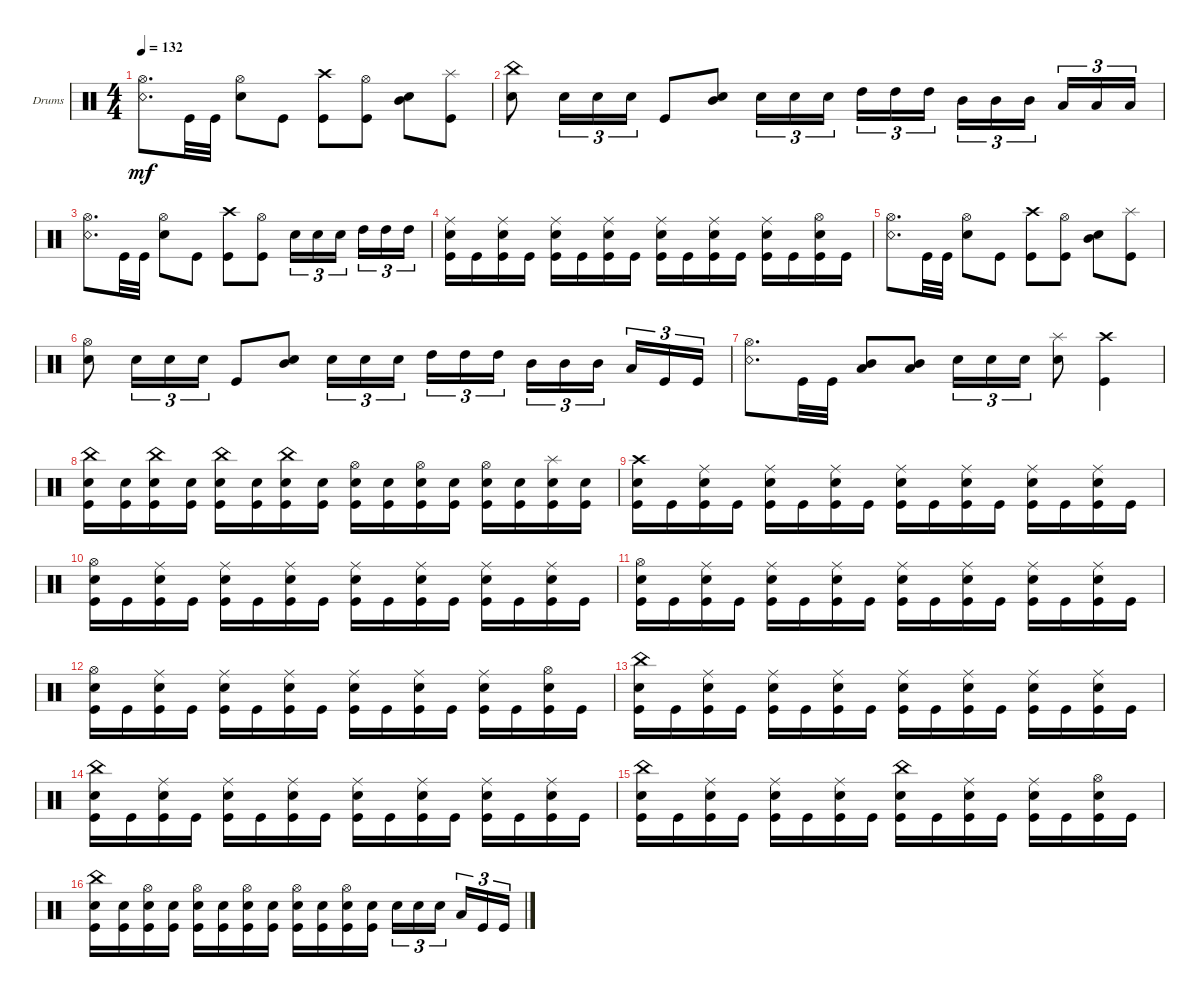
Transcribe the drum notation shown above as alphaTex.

\defaultSystemsLayout 4
\bracketExtendMode groupsimilarinstruments
\firstSystemTrackNameOrientation horizontal
\otherSystemsTrackNameOrientation horizontal
\track ("Drumkit" "Drums") {instrument percussion}
\staff {score}
\articulation defaults
\ts (4 4)
\tempo 132
\clef neutral
\scale
0.333333
\ks c
("Snare (rim shot)" "Hi-Hat (open)").8{d dy mf} "Kick (hit)".32 "Kick (hit)".32 ("Snare (hit) 2" "Hi-Hat (open)").8 "Kick (hit)".8 ("Kick (hit)" "Crash high (hit)").8 ("Kick (hit)" "Hi-Hat (open)").8 ("Snare (hit) 2" "Mid Tom (hit)").8 ("Kick (hit)" "Splash (hit)").8 |
\scale
0.333333 ("Snare (hit) 2" "China (hit)").8 "Snare (hit) 2".16{tu (3 2)} "Snare (hit) 2".16{tu (3 2)} "Snare (hit) 2".16{tu (3 2)} "Kick (hit)".8 ("Snare (hit) 2" "Mid Tom (hit)").8 "Snare (hit) 2".16{tu (3 2)} "Snare (hit) 2".16{tu (3 2)} "Snare (hit) 2".16{tu (3 2)} "High Tom (hit)".16{tu (3 2)} "High Tom (hit)".16{tu (3 2)} "High Tom (hit)".16{tu (3 2)} "Mid Tom (hit)".16{tu (3 2)} "Mid Tom (hit)".16{tu (3 2)} "Mid Tom (hit)".16{tu (3 2)} "Low Tom (hit)".16{tu (3 2)} "Low Tom (hit)".16{tu (3 2)} "Low Tom (hit)".16{tu (3 2)} |
\scale
0.333333 ("Snare (rim shot)" "Hi-Hat (open)").8{d} "Kick (hit)".32 "Kick (hit)".32 ("Snare (hit) 2" "Hi-Hat (open)").8 "Kick (hit)".8 ("Kick (hit)" "Crash high (hit)").8 ("Kick (hit)" "Hi-Hat (open)").8 "Snare (hit) 2".16{tu (3 2)} "Snare (hit) 2".16{tu (3 2)} "Snare (hit) 2".16{tu (3 2)} "High Tom (hit)".16{tu (3 2)} "High Tom (hit)".16{tu (3 2)} "High Tom (hit)".16{tu (3 2)} |
\scale
0.333333 ("Kick (hit)" "Ride (middle)" "Snare (hit) 2").16 "Kick (hit)".16 ("Kick (hit)" "Ride (middle)" "Snare (hit) 2").16 "Kick (hit)".16 ("Kick (hit)" "Snare (hit) 2" "Ride (middle)").16 "Kick (hit)".16 ("Kick (hit)" "Ride (middle)" "Snare (hit) 2").16 "Kick (hit)".16 ("Kick (hit)" "Ride (middle)" "Snare (hit) 2").16 "Kick (hit)".16 ("Kick (hit)" "Ride (middle)" "Snare (hit) 2").16 "Kick (hit)".16 ("Kick (hit)" "Snare (hit) 2" "Ride (middle)").16 "Kick (hit)".16 ("Kick (hit)" "Snare (hit) 2" "Hi-Hat (open)").16 "Kick (hit)".16 |
\scale
0.333333 ("Snare (rim shot)" "Hi-Hat (open)").8{d} "Kick (hit)".32 "Kick (hit)".32 ("Snare (hit) 2" "Hi-Hat (open)").8 "Kick (hit)".8 ("Kick (hit)" "Crash high (hit)").8 ("Kick (hit)" "Hi-Hat (open)").8 ("Snare (hit) 2" "Mid Tom (hit)").8 ("Kick (hit)" "Splash (hit)").8 |
\scale
0.333333 ("Snare (hit) 2" "Hi-Hat (open)").8 "Snare (hit) 2".16{tu (3 2)} "Snare (hit) 2".16{tu (3 2)} "Snare (hit) 2".16{tu (3 2)} "Kick (hit)".8 ("Snare (hit) 2" "Mid Tom (hit)").8 "Snare (hit) 2".16{tu (3 2)} "Snare (hit) 2".16{tu (3 2)} "Snare (hit) 2".16{tu (3 2)} "High Tom (hit)".16{tu (3 2)} "High Tom (hit)".16{tu (3 2)} "High Tom (hit)".16{tu (3 2)} "Mid Tom (hit)".16{tu (3 2)} "Mid Tom (hit)".16{tu (3 2)} "Mid Tom (hit)".16{tu (3 2)} "Low Tom (hit)".16{tu (3 2)} "Kick (hit)".16{tu (3 2)} "Kick (hit)".16{tu (3 2)} |
\scale
0.333333 ("Snare (rim shot)" "Hi-Hat (open)").8{d} "Kick (hit)".32 "Kick (hit)".32 ("Mid Tom (hit)" "Low Tom (hit)").8 ("Mid Tom (hit)" "Low Tom (hit)").8 "Snare (hit) 2".16{tu (3 2)} "Snare (hit) 2".16{tu (3 2)} "Snare (hit) 2".16{tu (3 2)} ("Splash (hit)" "Snare (hit) 2").8 ("Crash high (hit)" "Kick (hit)").4 |
\scale
0.333333 ("Kick (hit)" "Snare (hit) 2" "China (hit)").16 ("Kick (hit)" "Snare (hit) 2").16 ("Kick (hit)" "Snare (hit) 2" "China (hit)").16 ("Kick (hit)" "Snare (hit) 2").16 ("Kick (hit)" "Snare (hit) 2" "China (hit)").16 ("Kick (hit)" "Snare (hit) 2").16 ("Kick (hit)" "Snare (hit) 2" "China (hit)").16 ("Kick (hit)" "Snare (hit) 2").16 ("Kick (hit)" "Snare (hit) 2" "Hi-Hat (open)").16 ("Kick (hit)" "Snare (hit) 2").16 ("Kick (hit)" "Snare (hit) 2" "Hi-Hat (open)").16 ("Kick (hit)" "Snare (hit) 2").16 ("Kick (hit)" "Snare (hit) 2" "Hi-Hat (open)").16 ("Kick (hit)" "Snare (hit) 2").16 ("Kick (hit)" "Snare (hit) 2" "Splash (hit)").16 ("Kick (hit)" "Snare (hit) 2").16 |
\scale
0.333333 ("Kick (hit)" "Snare (hit) 2" "Crash high (hit)").16 "Kick (hit)".16 ("Kick (hit)" "Ride (middle)" "Snare (hit) 2").16 "Kick (hit)".16 ("Kick (hit)" "Snare (hit) 2" "Ride (middle)").16 "Kick (hit)".16 ("Kick (hit)" "Ride (middle)" "Snare (hit) 2").16 "Kick (hit)".16 ("Kick (hit)" "Ride (middle)" "Snare (hit) 2").16 "Kick (hit)".16 ("Kick (hit)" "Ride (middle)" "Snare (hit) 2").16 "Kick (hit)".16 ("Kick (hit)" "Snare (hit) 2" "Ride (middle)").16 "Kick (hit)".16 ("Kick (hit)" "Snare (hit) 2" "Ride (middle)").16 "Kick (hit)".16 |
\scale
0.333333 ("Kick (hit)" "Snare (hit) 2" "Hi-Hat (open)").16 "Kick (hit)".16 ("Kick (hit)" "Ride (middle)" "Snare (hit) 2").16 "Kick (hit)".16 ("Kick (hit)" "Snare (hit) 2" "Ride (middle)").16 "Kick (hit)".16 ("Kick (hit)" "Ride (middle)" "Snare (hit) 2").16 "Kick (hit)".16 ("Kick (hit)" "Ride (middle)" "Snare (hit) 2").16 "Kick (hit)".16 ("Kick (hit)" "Ride (middle)" "Snare (hit) 2").16 "Kick (hit)".16 ("Kick (hit)" "Snare (hit) 2" "Ride (middle)").16 "Kick (hit)".16 ("Kick (hit)" "Snare (hit) 2" "Ride (middle)").16 "Kick (hit)".16 |
\scale
0.333333 ("Kick (hit)" "Snare (hit) 2" "Hi-Hat (open)").16 "Kick (hit)".16 ("Kick (hit)" "Ride (middle)" "Snare (hit) 2").16 "Kick (hit)".16 ("Kick (hit)" "Snare (hit) 2" "Ride (middle)").16 "Kick (hit)".16 ("Kick (hit)" "Ride (middle)" "Snare (hit) 2").16 "Kick (hit)".16 ("Kick (hit)" "Ride (middle)" "Snare (hit) 2").16 "Kick (hit)".16 ("Kick (hit)" "Ride (middle)" "Snare (hit) 2").16 "Kick (hit)".16 ("Kick (hit)" "Snare (hit) 2" "Ride (middle)").16 "Kick (hit)".16 ("Kick (hit)" "Snare (hit) 2" "Ride (middle)").16 "Kick (hit)".16 |
\scale
0.333333 ("Kick (hit)" "Snare (hit) 2" "Hi-Hat (open)").16 "Kick (hit)".16 ("Kick (hit)" "Ride (middle)" "Snare (hit) 2").16 "Kick (hit)".16 ("Kick (hit)" "Snare (hit) 2" "Ride (middle)").16 "Kick (hit)".16 ("Kick (hit)" "Ride (middle)" "Snare (hit) 2").16 "Kick (hit)".16 ("Kick (hit)" "Ride (middle)" "Snare (hit) 2").16 "Kick (hit)".16 ("Kick (hit)" "Ride (middle)" "Snare (hit) 2").16 "Kick (hit)".16 ("Kick (hit)" "Snare (hit) 2" "Ride (middle)").16 "Kick (hit)".16 ("Kick (hit)" "Snare (hit) 2" "Hi-Hat (open)").16 "Kick (hit)".16 |
\scale
0.333333 ("Kick (hit)" "Snare (hit) 2" "China (hit)").16 "Kick (hit)".16 ("Kick (hit)" "Ride (middle)" "Snare (hit) 2").16 "Kick (hit)".16 ("Kick (hit)" "Snare (hit) 2" "Ride (middle)").16 "Kick (hit)".16 ("Kick (hit)" "Ride (middle)" "Snare (hit) 2").16 "Kick (hit)".16 ("Kick (hit)" "Ride (middle)" "Snare (hit) 2").16 "Kick (hit)".16 ("Kick (hit)" "Ride (middle)" "Snare (hit) 2").16 "Kick (hit)".16 ("Kick (hit)" "Snare (hit) 2" "Ride (middle)").16 "Kick (hit)".16 ("Kick (hit)" "Snare (hit) 2" "Ride (middle)").16 "Kick (hit)".16 |
\scale
0.333333 ("Kick (hit)" "Snare (hit) 2" "China (hit)").16 "Kick (hit)".16 ("Kick (hit)" "Ride (middle)" "Snare (hit) 2").16 "Kick (hit)".16 ("Kick (hit)" "Snare (hit) 2" "Ride (middle)").16 "Kick (hit)".16 ("Kick (hit)" "Ride (middle)" "Snare (hit) 2").16 "Kick (hit)".16 ("Kick (hit)" "Ride (middle)" "Snare (hit) 2").16 "Kick (hit)".16 ("Kick (hit)" "Ride (middle)" "Snare (hit) 2").16 "Kick (hit)".16 ("Kick (hit)" "Snare (hit) 2" "Ride (middle)").16 "Kick (hit)".16 ("Kick (hit)" "Snare (hit) 2" "Ride (middle)").16 "Kick (hit)".16 |
\scale
0.333333 ("Kick (hit)" "Snare (hit) 2" "China (hit)").16 "Kick (hit)".16 ("Kick (hit)" "Ride (middle)" "Snare (hit) 2").16 "Kick (hit)".16 ("Kick (hit)" "Snare (hit) 2" "Ride (middle)").16 "Kick (hit)".16 ("Kick (hit)" "Ride (middle)" "Snare (hit) 2").16 "Kick (hit)".16 ("Kick (hit)" "Snare (hit) 2" "China (hit)").16 "Kick (hit)".16 ("Kick (hit)" "Ride (middle)" "Snare (hit) 2").16 "Kick (hit)".16 ("Kick (hit)" "Snare (hit) 2" "Ride (middle)").16 "Kick (hit)".16 ("Kick (hit)" "Snare (hit) 2" "Hi-Hat (open)").16 "Kick (hit)".16 |
\scale
0.333333 ("Kick (hit)" "Snare (hit) 2" "China (hit)").16 ("Kick (hit)" "Snare (hit) 2").16 ("Kick (hit)" "Snare (hit) 2" "Hi-Hat (open)").16 ("Kick (hit)" "Snare (hit) 2").16 ("Kick (hit)" "Snare (hit) 2" "Hi-Hat (open)").16 ("Kick (hit)" "Snare (hit) 2").16 ("Kick (hit)" "Snare (hit) 2" "Hi-Hat (open)").16 ("Kick (hit)" "Snare (hit) 2").16 ("Kick (hit)" "Snare (hit) 2" "Hi-Hat (open)").16 ("Kick (hit)" "Snare (hit) 2").16 ("Kick (hit)" "Snare (hit) 2" "Hi-Hat (open)").16 ("Kick (hit)" "Snare (hit) 2").16 "Snare (hit) 2".16{tu (3 2)} "Snare (hit) 2".16{tu (3 2)} "Snare (hit) 2".16{tu (3 2)} "Low Tom (hit)".16{tu (3 2)} "Kick (hit)".16{tu (3 2)} "Kick (hit)".16{tu (3 2)}
